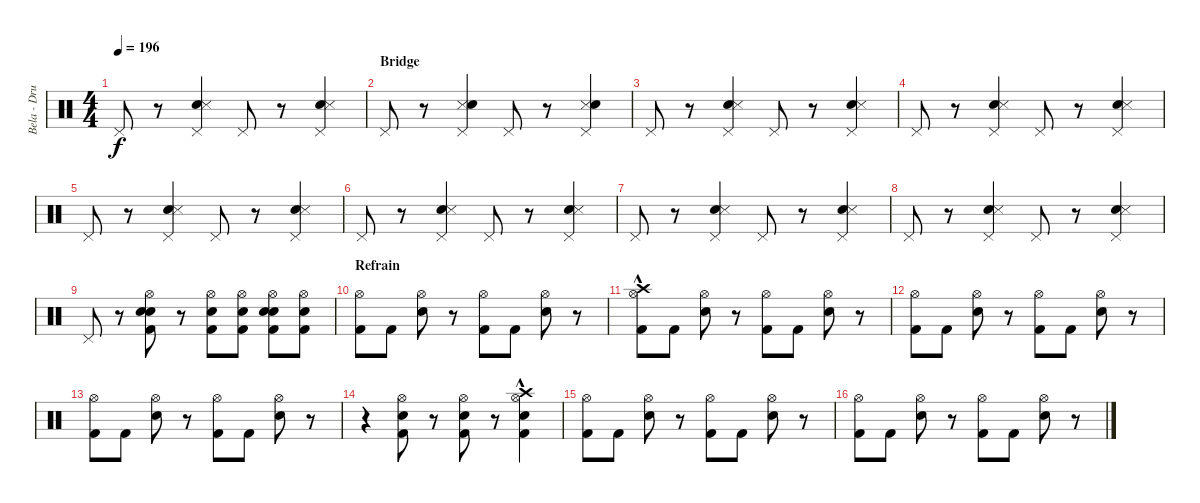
\track ("Bela - Drums" "Bela - Dru") {instrument percussion}
\staff {score}
\articulation defaults
\ts (4 4)
\tempo 196
\clef neutral
\ks c "Pedal Hi-Hat (hit)".8{dy f}
r.8 ("Electric Snare (hit)" "Pedal Hi-Hat (hit)" "Snare (side stick) 3").4 "Pedal Hi-Hat (hit)".8 r.8 ("Electric Snare (hit)" "Snare (side stick) 3" "Pedal Hi-Hat (hit)").4 |
\section ("" "Bridge")
"Pedal Hi-Hat (hit)".8 r.8 ("Pedal Hi-Hat (hit)" "Snare (side stick) 3" "Electric Snare (hit)").4 "Pedal Hi-Hat (hit)".8 r.8 ("Pedal Hi-Hat (hit)" "Snare (side stick) 3" "Electric Snare (hit)").4 |
"Pedal Hi-Hat (hit)".8 r.8 ("Electric Snare (hit)" "Pedal Hi-Hat (hit)" "Snare (side stick) 3").4 "Pedal Hi-Hat (hit)".8 r.8 ("Electric Snare (hit)" "Pedal Hi-Hat (hit)" "Snare (side stick) 3").4 |
"Pedal Hi-Hat (hit)".8 r.8 ("Electric Snare (hit)" "Pedal Hi-Hat (hit)" "Snare (side stick) 3").4 "Pedal Hi-Hat (hit)".8 r.8 ("Electric Snare (hit)" "Pedal Hi-Hat (hit)" "Snare (side stick) 3").4 |
"Pedal Hi-Hat (hit)".8 r.8 ("Electric Snare (hit)" "Pedal Hi-Hat (hit)" "Snare (side stick) 3").4 "Pedal Hi-Hat (hit)".8 r.8 ("Electric Snare (hit)" "Snare (side stick) 3" "Pedal Hi-Hat (hit)").4 |
"Pedal Hi-Hat (hit)".8 r.8 ("Electric Snare (hit)" "Snare (side stick) 3" "Pedal Hi-Hat (hit)").4 "Pedal Hi-Hat (hit)".8 r.8 ("Electric Snare (hit)" "Pedal Hi-Hat (hit)" "Snare (side stick) 3").4 |
"Pedal Hi-Hat (hit)".8 r.8 ("Electric Snare (hit)" "Snare (side stick) 3" "Pedal Hi-Hat (hit)").4 "Pedal Hi-Hat (hit)".8 r.8 ("Electric Snare (hit)" "Pedal Hi-Hat (hit)" "Snare (side stick) 3").4 |
"Pedal Hi-Hat (hit)".8 r.8 ("Electric Snare (hit)" "Snare (side stick) 3" "Pedal Hi-Hat (hit)").4 "Pedal Hi-Hat (hit)".8 r.8 ("Electric Snare (hit)" "Snare (side stick) 3" "Pedal Hi-Hat (hit)").4 |
"Pedal Hi-Hat (hit)".8 r.8 ("Electric Snare (hit)" "Electric Snare (hit)" "Kick (hit) 2" "Hi-Hat (open)").8 r.8 ("Electric Snare (hit)" "Kick (hit) 2" "Hi-Hat (open)").8 ("Electric Snare (hit)" "Kick (hit) 2" "Hi-Hat (open)").8 ("Electric Snare (hit)" "Electric Snare (hit)" "Hi-Hat (open)" "Kick (hit) 2").8 ("Electric Snare (hit)" "Kick (hit) 2" "Hi-Hat (open)").8 |
\section ("" "Refrain")
("Hi-Hat (open)" "Kick (hit) 2").8 "Kick (hit) 2".8 ("Hi-Hat (open)" "Electric Snare (hit)").8 r.8 ("Hi-Hat (open)" "Kick (hit) 2").8 "Kick (hit) 2".8 ("Electric Snare (hit)" "Hi-Hat (open)").8 r.8 |
("Crash high (hit)"{hac} "Kick (hit) 2" "Hi-Hat (open)").8 "Kick (hit) 2".8 ("Electric Snare (hit)" "Hi-Hat (open)").8 r.8 ("Hi-Hat (open)" "Kick (hit) 2").8 "Kick (hit) 2".8 ("Electric Snare (hit)" "Hi-Hat (open)").8 r.8 |
("Kick (hit) 2" "Hi-Hat (open)").8 "Kick (hit) 2".8 ("Electric Snare (hit)" "Hi-Hat (open)").8 r.8 ("Hi-Hat (open)" "Kick (hit) 2").8 "Kick (hit) 2".8 ("Electric Snare (hit)" "Hi-Hat (open)").8 r.8 |
("Kick (hit) 2" "Hi-Hat (open)").8 "Kick (hit) 2".8 ("Electric Snare (hit)" "Hi-Hat (open)").8 r.8 ("Hi-Hat (open)" "Kick (hit) 2").8 "Kick (hit) 2".8 ("Electric Snare (hit)" "Hi-Hat (open)").8 r.8 |
r.4 ("Hi-Hat (open)" "Electric Snare (hit)" "Kick (hit) 2").8 r.8 ("Hi-Hat (open)" "Electric Snare (hit)" "Kick (hit) 2").8 r.8 ("Crash high (hit)"{hac} "Hi-Hat (open)" "Electric Snare (hit)" "Kick (hit) 2").4 |
("Kick (hit) 2" "Hi-Hat (open)").8 "Kick (hit) 2".8 ("Electric Snare (hit)" "Hi-Hat (open)").8 r.8 ("Hi-Hat (open)" "Kick (hit) 2").8 "Kick (hit) 2".8 ("Electric Snare (hit)" "Hi-Hat (open)").8 r.8 |
("Kick (hit) 2" "Hi-Hat (open)").8 "Kick (hit) 2".8 ("Electric Snare (hit)" "Hi-Hat (open)").8 r.8 ("Hi-Hat (open)" "Kick (hit) 2").8 "Kick (hit) 2".8 ("Electric Snare (hit)" "Hi-Hat (open)").8 r.8
